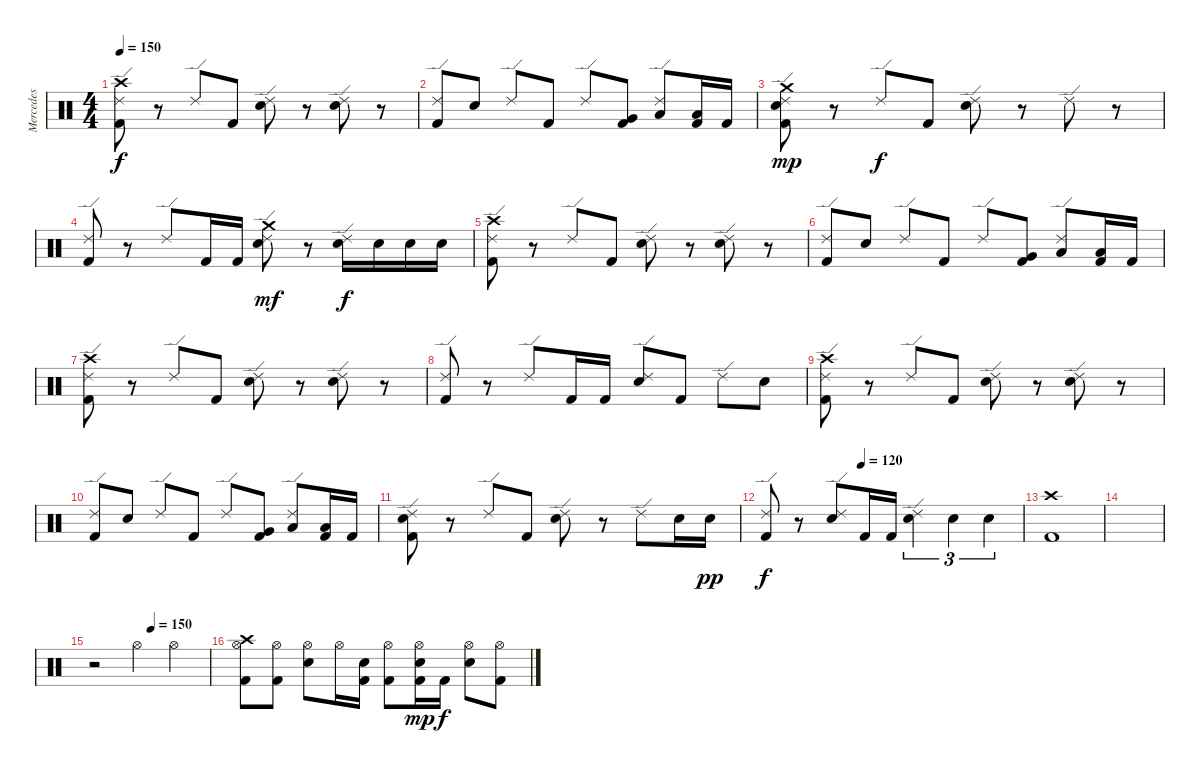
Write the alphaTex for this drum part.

\track ("Mercedes" "Mercedes") {instrument percussion}
\staff {score}
\articulation defaults
\ts (4 4)
\tempo 150
\clef neutral
\ks c
("Crash high (hit)" "Ride (edge) 2" "Kick (hit) 2").8{dy f} r.8 "Ride (edge) 2".8 "Kick (hit) 2".8 ("Ride (edge) 2" "Snare (hit) 2").8 r.8 ("Ride (edge) 2" "Snare (hit) 2").8 r.8 |
("Ride (edge) 2" "Kick (hit) 2").8 "Snare (hit) 2".8 "Ride (edge) 2".8 "Kick (hit) 2".8 "Ride (edge) 2".8 ("Very Low Tom (hit)" "Kick (hit) 2").8 ("Ride (edge) 2" "Low Floor Tom (hit)").8 ("Low Floor Tom (hit)" "Kick (hit) 2").16 "Kick (hit) 2".16 |
("Crash medium (hit)" "Ride (edge) 2" "Snare (hit) 2" "Kick (hit) 2").8{dy mp} r.8 "Ride (edge) 2".8{dy f} "Kick (hit) 2".8 ("Ride (edge) 2" "Snare (hit) 2").8 r.8 "Ride (edge) 2".8 r.8 |
("Ride (edge) 2" "Kick (hit) 2").8 r.8 "Ride (edge) 2".8 "Kick (hit) 2".16 "Kick (hit) 2".16 ("Crash medium (hit)" "Ride (edge) 2" "Snare (hit) 2").8{dy mf} r.8 ("Ride (edge) 2" "Snare (hit) 2").16{dy f} "Snare (hit) 2".16 "Snare (hit) 2".16 "Snare (hit) 2".16 |
("Crash high (hit)" "Ride (edge) 2" "Kick (hit) 2").8 r.8 "Ride (edge) 2".8 "Kick (hit) 2".8 ("Ride (edge) 2" "Snare (hit) 2").8 r.8 ("Ride (edge) 2" "Snare (hit) 2").8 r.8 |
("Ride (edge) 2" "Kick (hit) 2").8 "Snare (hit) 2".8 "Ride (edge) 2".8 "Kick (hit) 2".8 "Ride (edge) 2".8 ("Very Low Tom (hit)" "Kick (hit) 2").8 ("Ride (edge) 2" "Low Floor Tom (hit)").8 ("Low Floor Tom (hit)" "Kick (hit) 2").16 "Kick (hit) 2".16 |
("Crash high (hit)" "Ride (edge) 2" "Kick (hit) 2").8 r.8 "Ride (edge) 2".8 "Kick (hit) 2".8 ("Ride (edge) 2" "Snare (hit) 2").8 r.8 ("Ride (edge) 2" "Snare (hit) 2").8 r.8 |
("Ride (edge) 2" "Kick (hit) 2").8 r.8 "Ride (edge) 2".8 "Kick (hit) 2".16 "Kick (hit) 2".16 ("Ride (edge) 2" "Snare (hit) 2").8 "Kick (hit) 2".8 "Ride (edge) 2".8 "Snare (hit) 2".8 |
("Crash high (hit)" "Ride (edge) 2" "Kick (hit) 2").8 r.8 "Ride (edge) 2".8 "Kick (hit) 2".8 ("Ride (edge) 2" "Snare (hit) 2").8 r.8 ("Ride (edge) 2" "Snare (hit) 2").8 r.8 |
("Ride (edge) 2" "Kick (hit) 2").8 "Snare (hit) 2".8 "Ride (edge) 2".8 "Kick (hit) 2".8 "Ride (edge) 2".8 ("Very Low Tom (hit)" "Kick (hit) 2").8 ("Ride (edge) 2" "Low Floor Tom (hit)").8 ("Low Floor Tom (hit)" "Kick (hit) 2").16 "Kick (hit) 2".16 |
("Ride (edge) 2" "Snare (hit) 2" "Kick (hit) 2").8 r.8 "Ride (edge) 2".8 "Kick (hit) 2".8 ("Ride (edge) 2" "Snare (hit) 2").8 r.8 "Ride (edge) 2".8 "Snare (hit) 2".16 "Snare (hit) 2".16{dy pp} |
\tempo (120 0.375)
("Ride (edge) 2" "Kick (hit) 2").8{dy f} r.8 ("Ride (edge) 2" "Snare (hit) 2").8 "Kick (hit) 2".16 "Kick (hit) 2".16 ("Ride (edge) 2" "Snare (hit) 2").4{tu (3 2)} "Snare (hit) 2".4{tu (3 2)} "Snare (hit) 2".4{tu (3 2)} |
("Crash high (hit)" "Kick (hit) 2").1 |
|
\tempo (150 0.5)
r.2 "Hi-Hat (open)".4 "Hi-Hat (open)".4 |
("Crash high (hit)" "Hi-Hat (open)" "Kick (hit) 2").8 ("Hi-Hat (open)" "Kick (hit) 2").8 ("Hi-Hat (open)" "Electric Snare (hit)").8 "Hi-Hat (open)".16 ("Electric Snare (hit)" "Kick (hit) 2").16 ("Hi-Hat (open)" "Kick (hit) 2").8 ("Hi-Hat (open)" "Electric Snare (hit)" "Kick (hit) 2").16{dy mp} "Kick (hit) 2".16{dy f} ("Hi-Hat (open)" "Electric Snare (hit)").8 ("Hi-Hat (open)" "Kick (hit) 2").8
